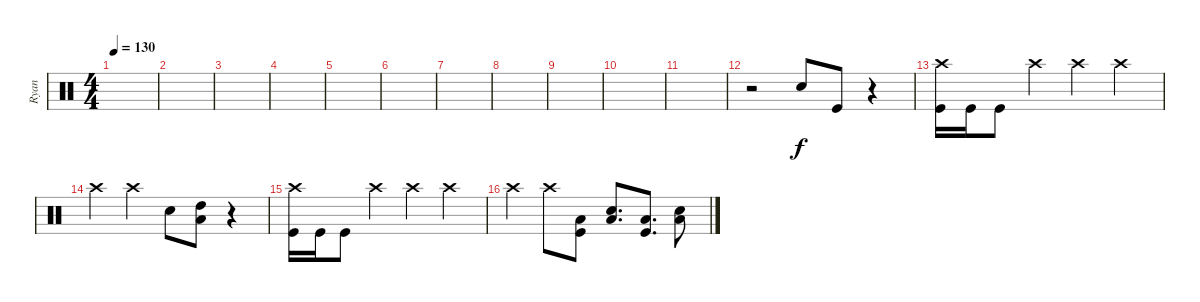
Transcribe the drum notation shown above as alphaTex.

\track ("Ryan" "Ryan") {instrument percussion}
\staff {score}
\articulation defaults
\ts (4 4)
\tempo 130
\clef neutral
\ks c
|
|
|
|
|
|
|
|
|
|
|
r.2 "Electric Snare (hit)".8 "Kick (hit)".8 r.4 |
("Crash high (hit)" "Kick (hit)").16 "Kick (hit)".16 "Kick (hit)".8 "Crash high (hit)".4 "Crash high (hit)".4 "Crash high (hit)".4 |
"Crash high (hit)".4 "Crash high (hit)".4 "Electric Snare (hit)".8 ("High Tom (hit)" "Low Floor Tom (hit)").8 r.4 |
("Crash high (hit)" "Kick (hit)").16 "Kick (hit)".16 "Kick (hit)".8 "Crash high (hit)".4 "Crash high (hit)".4 "Crash high (hit)".4 |
"Crash high (hit)".4 "Crash high (hit)".8 ("Low Tom (hit)" "Kick (hit)").8 ("Electric Snare (hit)" "Low Floor Tom (hit)").8{d} ("Low Tom (hit)" "Kick (hit)").8{d} ("Electric Snare (hit)" "Low Floor Tom (hit)").8
